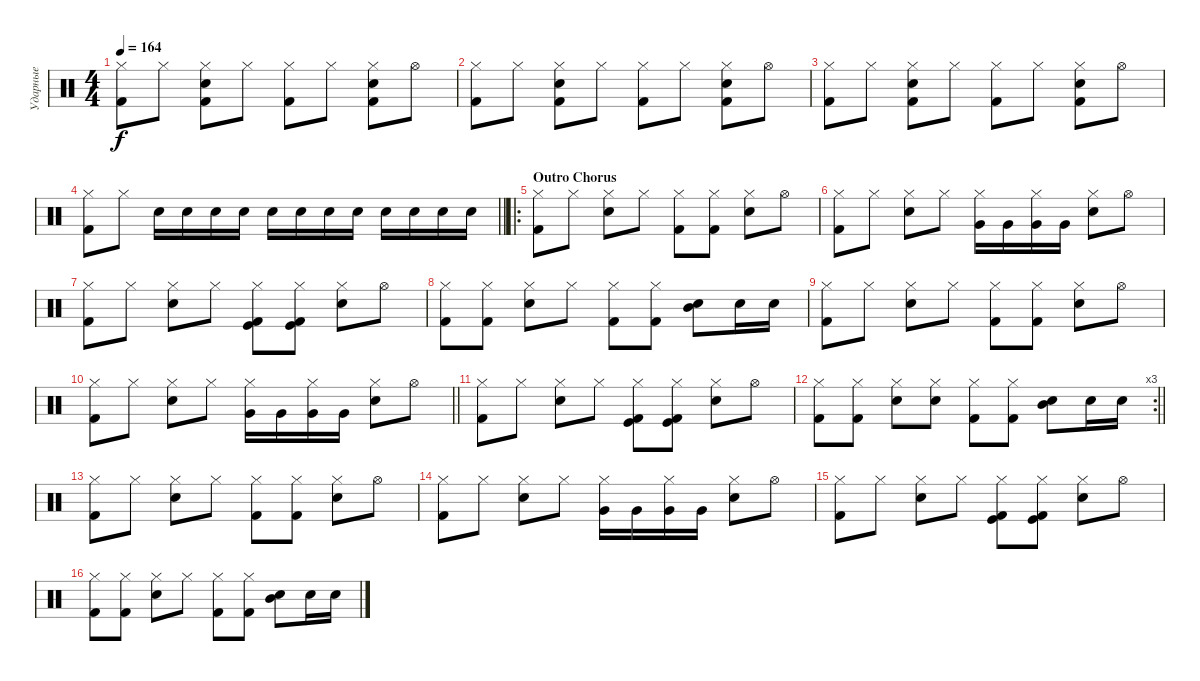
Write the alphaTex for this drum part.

\track ("Ударные" "Ударные") {instrument percussion}
\staff {score}
\articulation defaults
\ts (4 4)
\tempo 164
\clef neutral
\ks c
("Hi-Hat (closed)" "Kick (hit) 2").8{dy f} "Hi-Hat (closed)".8 ("Hi-Hat (closed)" "Snare (hit) 2" "Kick (hit) 2").8 "Hi-Hat (closed)".8 ("Hi-Hat (closed)" "Kick (hit) 2").8 "Hi-Hat (closed)".8 ("Hi-Hat (closed)" "Snare (hit) 2" "Kick (hit) 2").8 "Hi-Hat (open)".8 |
("Hi-Hat (closed)" "Kick (hit) 2").8 "Hi-Hat (closed)".8 ("Hi-Hat (closed)" "Snare (hit) 2" "Kick (hit) 2").8 "Hi-Hat (closed)".8 ("Hi-Hat (closed)" "Kick (hit) 2").8 "Hi-Hat (closed)".8 ("Hi-Hat (closed)" "Snare (hit) 2" "Kick (hit) 2").8 "Hi-Hat (open)".8 |
("Hi-Hat (closed)" "Kick (hit) 2").8 "Hi-Hat (closed)".8 ("Hi-Hat (closed)" "Snare (hit) 2" "Kick (hit) 2").8 "Hi-Hat (closed)".8 ("Hi-Hat (closed)" "Kick (hit) 2").8 "Hi-Hat (closed)".8 ("Hi-Hat (closed)" "Snare (hit) 2" "Kick (hit) 2").8 "Hi-Hat (open)".8 |
\barLineRight lightlight
("Hi-Hat (closed)" "Kick (hit) 2").8 "Hi-Hat (closed)".8 "Snare (hit) 2".16 "Snare (hit) 2".16 "Snare (hit) 2".16 "Snare (hit) 2".16 "Snare (hit) 2".16 "Snare (hit) 2".16 "Snare (hit) 2".16 "Snare (hit) 2".16 "Snare (hit) 2".16 "Snare (hit) 2".16 "Snare (hit) 2".16 "Snare (hit) 2".16 |
\ro
\section ("" "Outro Chorus")
("Hi-Hat (closed)" "Kick (hit) 2").8 "Hi-Hat (closed)".8 ("Hi-Hat (closed)" "Snare (hit) 2").8 "Hi-Hat (closed)".8 ("Hi-Hat (closed)" "Kick (hit) 2").8 ("Hi-Hat (closed)" "Kick (hit) 2").8 ("Hi-Hat (closed)" "Snare (hit) 2").8 "Hi-Hat (open)".8 |
("Hi-Hat (closed)" "Kick (hit) 2").8 "Hi-Hat (closed)".8 ("Hi-Hat (closed)" "Snare (hit) 2").8 "Hi-Hat (closed)".8 ("Hi-Hat (closed)" "Very Low Tom (hit)").16 "Very Low Tom (hit)".16 ("Hi-Hat (closed)" "Very Low Tom (hit)").16 "Very Low Tom (hit)".16 ("Hi-Hat (closed)" "Snare (hit) 2").8 "Hi-Hat (open)".8 |
("Hi-Hat (closed)" "Kick (hit) 2").8 "Hi-Hat (closed)".8 ("Hi-Hat (closed)" "Snare (hit) 2").8 "Hi-Hat (closed)".8 ("Hi-Hat (closed)" "Kick (hit)" "Kick (hit) 2").8 ("Hi-Hat (closed)" "Kick (hit)" "Kick (hit) 2").8 ("Hi-Hat (closed)" "Snare (hit) 2").8 "Hi-Hat (open)".8 |
("Hi-Hat (closed)" "Kick (hit) 2").8 ("Hi-Hat (closed)" "Kick (hit) 2").8 ("Hi-Hat (closed)" "Snare (hit) 2").8 "Hi-Hat (closed)".8 ("Hi-Hat (closed)" "Kick (hit) 2").8 ("Hi-Hat (closed)" "Kick (hit) 2").8 ("Snare (hit) 2" "Mid Tom (hit)").8 "Snare (hit) 2".16 "Snare (hit) 2".16 |
("Hi-Hat (closed)" "Kick (hit) 2").8 "Hi-Hat (closed)".8 ("Hi-Hat (closed)" "Snare (hit) 2").8 "Hi-Hat (closed)".8 ("Hi-Hat (closed)" "Kick (hit) 2").8 ("Hi-Hat (closed)" "Kick (hit) 2").8 ("Hi-Hat (closed)" "Snare (hit) 2").8 "Hi-Hat (open)".8 |
\barLineRight lightlight
("Hi-Hat (closed)" "Kick (hit) 2").8 "Hi-Hat (closed)".8 ("Hi-Hat (closed)" "Snare (hit) 2").8 "Hi-Hat (closed)".8 ("Hi-Hat (closed)" "Very Low Tom (hit)").16 "Very Low Tom (hit)".16 ("Hi-Hat (closed)" "Very Low Tom (hit)").16 "Very Low Tom (hit)".16 ("Hi-Hat (closed)" "Snare (hit) 2").8 "Hi-Hat (open)".8 |
("Hi-Hat (closed)" "Kick (hit) 2").8 "Hi-Hat (closed)".8 ("Hi-Hat (closed)" "Snare (hit) 2").8 "Hi-Hat (closed)".8 ("Hi-Hat (closed)" "Kick (hit)" "Kick (hit) 2").8 ("Hi-Hat (closed)" "Kick (hit)" "Kick (hit) 2").8 ("Hi-Hat (closed)" "Snare (hit) 2").8 "Hi-Hat (open)".8 |
\rc 3
\barLineRight lightlight
("Hi-Hat (closed)" "Kick (hit) 2").8 ("Hi-Hat (closed)" "Kick (hit) 2").8 ("Hi-Hat (closed)" "Snare (hit) 2").8 ("Hi-Hat (closed)" "Snare (hit) 2").8 ("Hi-Hat (closed)" "Kick (hit) 2").8 ("Hi-Hat (closed)" "Kick (hit) 2").8 ("Snare (hit) 2" "Mid Tom (hit)").8 "Snare (hit) 2".16 "Snare (hit) 2".16 |
("Hi-Hat (closed)" "Kick (hit) 2").8 "Hi-Hat (closed)".8 ("Hi-Hat (closed)" "Snare (hit) 2").8 "Hi-Hat (closed)".8 ("Hi-Hat (closed)" "Kick (hit) 2").8 ("Hi-Hat (closed)" "Kick (hit) 2").8 ("Hi-Hat (closed)" "Snare (hit) 2").8 "Hi-Hat (open)".8 |
("Hi-Hat (closed)" "Kick (hit) 2").8 "Hi-Hat (closed)".8 ("Hi-Hat (closed)" "Snare (hit) 2").8 "Hi-Hat (closed)".8 ("Hi-Hat (closed)" "Very Low Tom (hit)").16 "Very Low Tom (hit)".16 ("Hi-Hat (closed)" "Very Low Tom (hit)").16 "Very Low Tom (hit)".16 ("Hi-Hat (closed)" "Snare (hit) 2").8 "Hi-Hat (open)".8 |
("Hi-Hat (closed)" "Kick (hit) 2").8 "Hi-Hat (closed)".8 ("Hi-Hat (closed)" "Snare (hit) 2").8 "Hi-Hat (closed)".8 ("Hi-Hat (closed)" "Kick (hit)" "Kick (hit) 2").8 ("Hi-Hat (closed)" "Kick (hit)" "Kick (hit) 2").8 ("Hi-Hat (closed)" "Snare (hit) 2").8 "Hi-Hat (open)".8 |
("Hi-Hat (closed)" "Kick (hit) 2").8 ("Hi-Hat (closed)" "Kick (hit) 2").8 ("Hi-Hat (closed)" "Snare (hit) 2").8 "Hi-Hat (closed)".8 ("Hi-Hat (closed)" "Kick (hit) 2").8 ("Hi-Hat (closed)" "Kick (hit) 2").8 ("Snare (hit) 2" "Mid Tom (hit)").8 "Snare (hit) 2".16 "Snare (hit) 2".16
